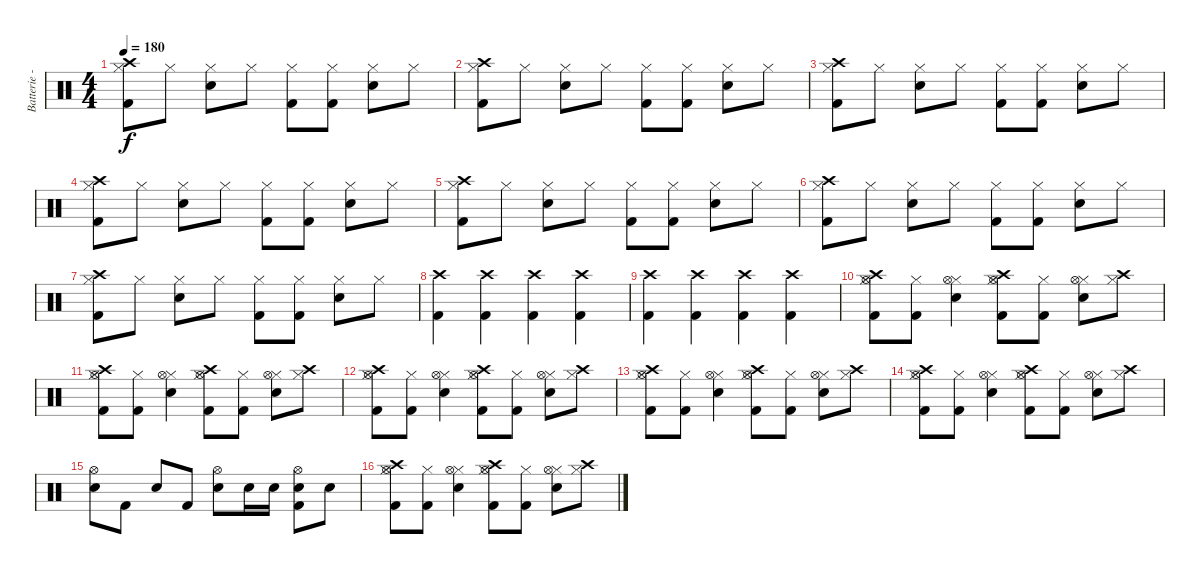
\track ("Batterie - Stevo" "Batterie -") {instrument percussion}
\staff {score}
\articulation defaults
\ts (4 4)
\tempo 180
\clef neutral
\ks c
("Hi-Hat (closed)" "Kick (hit) 2" "Crash high (hit)").8{dy f} "Hi-Hat (closed)".8 ("Hi-Hat (closed)" "Electric Snare (hit)").8 "Hi-Hat (closed)".8 ("Hi-Hat (closed)" "Kick (hit) 2").8 ("Hi-Hat (closed)" "Kick (hit) 2").8 ("Hi-Hat (closed)" "Electric Snare (hit)").8 "Hi-Hat (closed)".8 |
("Hi-Hat (closed)" "Kick (hit) 2" "Crash high (hit)").8 "Hi-Hat (closed)".8 ("Hi-Hat (closed)" "Electric Snare (hit)").8 "Hi-Hat (closed)".8 ("Hi-Hat (closed)" "Kick (hit) 2").8 ("Hi-Hat (closed)" "Kick (hit) 2").8 ("Hi-Hat (closed)" "Electric Snare (hit)").8 "Hi-Hat (closed)".8 |
("Hi-Hat (closed)" "Kick (hit) 2" "Crash high (hit)").8 "Hi-Hat (closed)".8 ("Hi-Hat (closed)" "Electric Snare (hit)").8 "Hi-Hat (closed)".8 ("Hi-Hat (closed)" "Kick (hit) 2").8 ("Hi-Hat (closed)" "Kick (hit) 2").8 ("Hi-Hat (closed)" "Electric Snare (hit)").8 "Hi-Hat (closed)".8 |
("Hi-Hat (closed)" "Kick (hit) 2" "Crash high (hit)").8 "Hi-Hat (closed)".8 ("Hi-Hat (closed)" "Electric Snare (hit)").8 "Hi-Hat (closed)".8 ("Hi-Hat (closed)" "Kick (hit) 2").8 ("Hi-Hat (closed)" "Kick (hit) 2").8 ("Hi-Hat (closed)" "Electric Snare (hit)").8 "Hi-Hat (closed)".8 |
("Hi-Hat (closed)" "Kick (hit) 2" "Crash high (hit)").8 "Hi-Hat (closed)".8 ("Hi-Hat (closed)" "Electric Snare (hit)").8 "Hi-Hat (closed)".8 ("Hi-Hat (closed)" "Kick (hit) 2").8 ("Hi-Hat (closed)" "Kick (hit) 2").8 ("Hi-Hat (closed)" "Electric Snare (hit)").8 "Hi-Hat (closed)".8 |
("Hi-Hat (closed)" "Kick (hit) 2" "Crash high (hit)").8 "Hi-Hat (closed)".8 ("Hi-Hat (closed)" "Electric Snare (hit)").8 "Hi-Hat (closed)".8 ("Hi-Hat (closed)" "Kick (hit) 2").8 ("Hi-Hat (closed)" "Kick (hit) 2").8 ("Hi-Hat (closed)" "Electric Snare (hit)").8 "Hi-Hat (closed)".8 |
("Hi-Hat (closed)" "Kick (hit) 2" "Crash high (hit)").8 "Hi-Hat (closed)".8 ("Hi-Hat (closed)" "Electric Snare (hit)").8 "Hi-Hat (closed)".8 ("Hi-Hat (closed)" "Kick (hit) 2").8 ("Hi-Hat (closed)" "Kick (hit) 2").8 ("Hi-Hat (closed)" "Electric Snare (hit)").8 "Hi-Hat (closed)".8 |
("Kick (hit) 2" "Crash high (hit)").4 ("Kick (hit) 2" "Crash high (hit)").4 ("Kick (hit) 2" "Crash high (hit)").4 ("Kick (hit) 2" "Crash high (hit)").4 |
("Kick (hit) 2" "Crash high (hit)").4 ("Kick (hit) 2" "Crash high (hit)").4 ("Kick (hit) 2" "Crash high (hit)").4 ("Kick (hit) 2" "Crash high (hit)").4 |
("Hi-Hat (closed)" "Kick (hit) 2" "Hi-Hat (open)" "Crash high (hit)").8 ("Hi-Hat (closed)" "Kick (hit) 2").8 ("Hi-Hat (closed)" "Electric Snare (hit)" "Hi-Hat (open)").4 ("Hi-Hat (closed)" "Kick (hit) 2" "Hi-Hat (open)" "Crash high (hit)").8 ("Hi-Hat (closed)" "Kick (hit) 2").8 ("Hi-Hat (closed)" "Electric Snare (hit)" "Hi-Hat (open)").8 ("Hi-Hat (closed)" "Crash high (hit)").8 |
("Hi-Hat (closed)" "Kick (hit) 2" "Hi-Hat (open)" "Crash high (hit)").8 ("Hi-Hat (closed)" "Kick (hit) 2").8 ("Hi-Hat (closed)" "Electric Snare (hit)" "Hi-Hat (open)").4 ("Hi-Hat (closed)" "Kick (hit) 2" "Hi-Hat (open)" "Crash high (hit)").8 ("Hi-Hat (closed)" "Kick (hit) 2").8 ("Hi-Hat (closed)" "Electric Snare (hit)" "Hi-Hat (open)").8 ("Hi-Hat (closed)" "Crash high (hit)").8 |
("Hi-Hat (closed)" "Kick (hit) 2" "Hi-Hat (open)" "Crash high (hit)").8 ("Hi-Hat (closed)" "Kick (hit) 2").8 ("Hi-Hat (closed)" "Electric Snare (hit)" "Hi-Hat (open)").4 ("Hi-Hat (closed)" "Kick (hit) 2" "Hi-Hat (open)" "Crash high (hit)").8 ("Hi-Hat (closed)" "Kick (hit) 2").8 ("Hi-Hat (closed)" "Electric Snare (hit)" "Hi-Hat (open)").8 ("Hi-Hat (closed)" "Crash high (hit)").8 |
("Hi-Hat (closed)" "Kick (hit) 2" "Hi-Hat (open)" "Crash high (hit)").8 ("Hi-Hat (closed)" "Kick (hit) 2").8 ("Hi-Hat (closed)" "Electric Snare (hit)" "Hi-Hat (open)").4 ("Hi-Hat (closed)" "Kick (hit) 2" "Hi-Hat (open)" "Crash high (hit)").8 ("Hi-Hat (closed)" "Kick (hit) 2").8 ("Hi-Hat (closed)" "Electric Snare (hit)" "Hi-Hat (open)").8 ("Hi-Hat (closed)" "Crash high (hit)").8 |
("Hi-Hat (closed)" "Kick (hit) 2" "Hi-Hat (open)" "Crash high (hit)").8 ("Hi-Hat (closed)" "Kick (hit) 2").8 ("Hi-Hat (closed)" "Electric Snare (hit)" "Hi-Hat (open)").4 ("Hi-Hat (closed)" "Kick (hit) 2" "Hi-Hat (open)" "Crash high (hit)").8 ("Hi-Hat (closed)" "Kick (hit) 2").8 ("Hi-Hat (closed)" "Electric Snare (hit)" "Hi-Hat (open)").8 ("Hi-Hat (closed)" "Crash high (hit)").8 |
("Electric Snare (hit)" "Hi-Hat (open)").8 "Kick (hit) 2".8 "Electric Snare (hit)".8 "Kick (hit) 2".8 ("Electric Snare (hit)" "Hi-Hat (open)").8 "Electric Snare (hit)".16 "Electric Snare (hit)".16 ("Electric Snare (hit)" "Kick (hit) 2" "Hi-Hat (open)").8 "Electric Snare (hit)".8 |
("Hi-Hat (closed)" "Kick (hit) 2" "Hi-Hat (open)" "Crash high (hit)").8 ("Hi-Hat (closed)" "Kick (hit) 2").8 ("Hi-Hat (closed)" "Electric Snare (hit)" "Hi-Hat (open)").4 ("Hi-Hat (closed)" "Kick (hit) 2" "Hi-Hat (open)" "Crash high (hit)").8 ("Hi-Hat (closed)" "Kick (hit) 2").8 ("Hi-Hat (closed)" "Electric Snare (hit)" "Hi-Hat (open)").8 ("Hi-Hat (closed)" "Crash high (hit)").8
